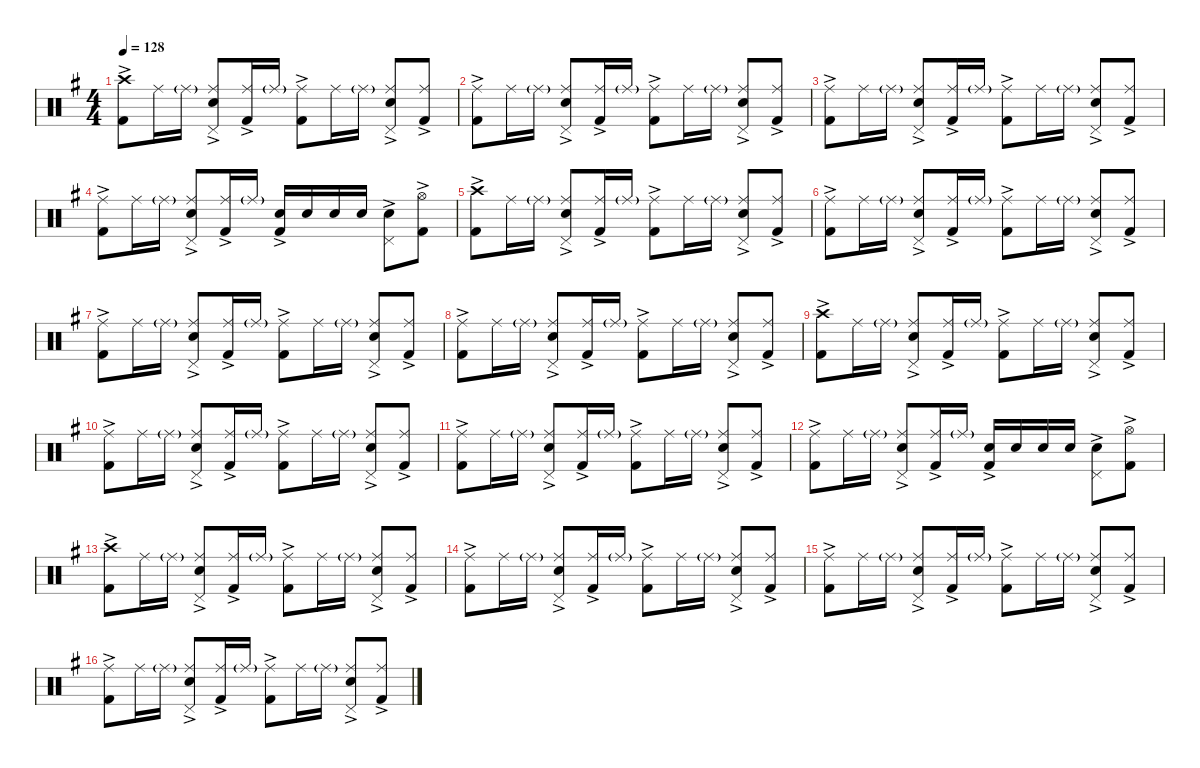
\defaultSystemsLayout 4
\hideDynamics
\bracketExtendMode nobrackets
\singleTrackTrackNamePolicy hidden
\multiTrackTrackNamePolicy hidden
\firstSystemTrackNameMode fullname
\firstSystemTrackNameOrientation horizontal
\otherSystemsTrackNameOrientation horizontal
\track ("Drums" "drm.") {instrument percussion}
\staff {score}
\articulation defaults
\ts (4 4)
\tempo 128
\clef neutral
\ks g
("Crash high (hit)"{acc forcenatural} "Kick (hit) 2"{ac acc forcenatural}).8{dy f beam Down} "Ride (middle)"{acc forcenatural}.16{beam Down} "Ride (middle)"{g acc forcenatural}.16{dy mf beam Down} ("Ride (middle)"{acc forcenatural} "Pedal Hi-Hat (hit)"{acc forcenatural} "Snare (hit) 2"{ac acc forcenatural}).8{dy f beam Up} ("Ride (middle)"{acc forcenatural} "Kick (hit) 2"{ac acc forcenatural}).16{beam Up} "Ride (middle)"{g acc forcenatural}.16{dy mf beam Up} ("Ride (middle)"{acc forcenatural} "Kick (hit) 2"{ac acc forcenatural}).8{dy f beam Down} "Ride (middle)"{acc forcenatural}.16{beam Down} "Ride (middle)"{g acc forcenatural}.16{dy mf beam Down} ("Ride (middle)"{acc forcenatural} "Pedal Hi-Hat (hit)"{acc forcenatural} "Snare (hit) 2"{ac acc forcenatural}).8{dy f beam Up} ("Ride (middle)"{acc forcenatural} "Kick (hit) 2"{ac acc forcenatural}).8{beam Up} |
("Ride (middle)"{acc forcenatural} "Kick (hit) 2"{ac acc forcenatural}).8{beam Down} "Ride (middle)"{acc forcenatural}.16{beam Down} "Ride (middle)"{g acc forcenatural}.16{dy mf beam Down} ("Ride (middle)"{acc forcenatural} "Pedal Hi-Hat (hit)"{acc forcenatural} "Snare (hit) 2"{ac acc forcenatural}).8{dy f beam Up} ("Ride (middle)"{acc forcenatural} "Kick (hit) 2"{ac acc forcenatural}).16{beam Up} "Ride (middle)"{g acc forcenatural}.16{dy mf beam Up} ("Ride (middle)"{acc forcenatural} "Kick (hit) 2"{ac acc forcenatural}).8{dy f beam Down} "Ride (middle)"{acc forcenatural}.16{beam Down} "Ride (middle)"{g acc forcenatural}.16{dy mf beam Down} ("Ride (middle)"{acc forcenatural} "Pedal Hi-Hat (hit)"{acc forcenatural} "Snare (hit) 2"{ac acc forcenatural}).8{dy f beam Up} ("Ride (middle)"{acc forcenatural} "Kick (hit) 2"{ac acc forcenatural}).8{beam Up} |
("Ride (middle)"{acc forcenatural} "Kick (hit) 2"{ac acc forcenatural}).8{beam Down} "Ride (middle)"{acc forcenatural}.16{beam Down} "Ride (middle)"{g acc forcenatural}.16{dy mf beam Down} ("Ride (middle)"{acc forcenatural} "Pedal Hi-Hat (hit)"{acc forcenatural} "Snare (hit) 2"{ac acc forcenatural}).8{dy f beam Up} ("Ride (middle)"{acc forcenatural} "Kick (hit) 2"{ac acc forcenatural}).16{beam Up} "Ride (middle)"{g acc forcenatural}.16{dy mf beam Up} ("Ride (middle)"{acc forcenatural} "Kick (hit) 2"{ac acc forcenatural}).8{dy f beam Down} "Ride (middle)"{acc forcenatural}.16{beam Down} "Ride (middle)"{g acc forcenatural}.16{dy mf beam Down} ("Ride (middle)"{acc forcenatural} "Pedal Hi-Hat (hit)"{acc forcenatural} "Snare (hit) 2"{ac acc forcenatural}).8{dy f beam Up} ("Ride (middle)"{acc forcenatural} "Kick (hit) 2"{ac acc forcenatural}).8{beam Up} |
("Ride (middle)"{acc forcenatural} "Kick (hit) 2"{ac acc forcenatural}).8{beam Down} "Ride (middle)"{acc forcenatural}.16{beam Down} "Ride (middle)"{g acc forcenatural}.16{dy mf beam Down} ("Ride (middle)"{acc forcenatural} "Pedal Hi-Hat (hit)"{acc forcenatural} "Snare (hit) 2"{ac acc forcenatural}).8{dy f beam Up} ("Ride (middle)"{acc forcenatural} "Kick (hit) 2"{ac acc forcenatural}).16{beam Up} "Ride (middle)"{g acc forcenatural}.16{dy mf beam Up} ("Snare (hit) 2"{acc forcenatural} "Kick (hit) 2"{ac acc forcenatural}).16{dy f beam Up} "Snare (hit) 2"{acc forcenatural}.16{beam Up} "Snare (hit) 2"{acc forcenatural}.16{beam Up} "Snare (hit) 2"{acc forcenatural}.16{beam Up} ("Pedal Hi-Hat (hit)"{acc forcenatural} "Snare (hit) 2"{ac acc forcenatural}).8{beam Down} ("Hi-Hat (open)"{acc forcenatural} "Kick (hit) 2"{ac acc forcenatural}).8{beam Down} |
("Crash high (hit)"{acc forcenatural} "Kick (hit) 2"{ac acc forcenatural}).8{beam Down} "Ride (middle)"{acc forcenatural}.16{beam Down} "Ride (middle)"{g acc forcenatural}.16{dy mf beam Down} ("Ride (middle)"{acc forcenatural} "Pedal Hi-Hat (hit)"{acc forcenatural} "Snare (hit) 2"{ac acc forcenatural}).8{dy f beam Up} ("Ride (middle)"{acc forcenatural} "Kick (hit) 2"{ac acc forcenatural}).16{beam Up} "Ride (middle)"{g acc forcenatural}.16{dy mf beam Up} ("Ride (middle)"{acc forcenatural} "Kick (hit) 2"{ac acc forcenatural}).8{dy f beam Down} "Ride (middle)"{acc forcenatural}.16{beam Down} "Ride (middle)"{g acc forcenatural}.16{dy mf beam Down} ("Ride (middle)"{acc forcenatural} "Pedal Hi-Hat (hit)"{acc forcenatural} "Snare (hit) 2"{ac acc forcenatural}).8{dy f beam Up} ("Ride (middle)"{acc forcenatural} "Kick (hit) 2"{ac acc forcenatural}).8{beam Up} |
("Ride (middle)"{acc forcenatural} "Kick (hit) 2"{ac acc forcenatural}).8{beam Down} "Ride (middle)"{acc forcenatural}.16{beam Down} "Ride (middle)"{g acc forcenatural}.16{dy mf beam Down} ("Ride (middle)"{acc forcenatural} "Pedal Hi-Hat (hit)"{acc forcenatural} "Snare (hit) 2"{ac acc forcenatural}).8{dy f beam Up} ("Ride (middle)"{acc forcenatural} "Kick (hit) 2"{ac acc forcenatural}).16{beam Up} "Ride (middle)"{g acc forcenatural}.16{dy mf beam Up} ("Ride (middle)"{acc forcenatural} "Kick (hit) 2"{ac acc forcenatural}).8{dy f beam Down} "Ride (middle)"{acc forcenatural}.16{beam Down} "Ride (middle)"{g acc forcenatural}.16{dy mf beam Down} ("Ride (middle)"{acc forcenatural} "Pedal Hi-Hat (hit)"{acc forcenatural} "Snare (hit) 2"{ac acc forcenatural}).8{dy f beam Up} ("Ride (middle)"{acc forcenatural} "Kick (hit) 2"{ac acc forcenatural}).8{beam Up} |
("Ride (middle)"{acc forcenatural} "Kick (hit) 2"{ac acc forcenatural}).8{beam Down} "Ride (middle)"{acc forcenatural}.16{beam Down} "Ride (middle)"{g acc forcenatural}.16{dy mf beam Down} ("Ride (middle)"{acc forcenatural} "Pedal Hi-Hat (hit)"{acc forcenatural} "Snare (hit) 2"{ac acc forcenatural}).8{dy f beam Up} ("Ride (middle)"{acc forcenatural} "Kick (hit) 2"{ac acc forcenatural}).16{beam Up} "Ride (middle)"{g acc forcenatural}.16{dy mf beam Up} ("Ride (middle)"{acc forcenatural} "Kick (hit) 2"{ac acc forcenatural}).8{dy f beam Down} "Ride (middle)"{acc forcenatural}.16{beam Down} "Ride (middle)"{g acc forcenatural}.16{dy mf beam Down} ("Ride (middle)"{acc forcenatural} "Pedal Hi-Hat (hit)"{acc forcenatural} "Snare (hit) 2"{ac acc forcenatural}).8{dy f beam Up} ("Ride (middle)"{acc forcenatural} "Kick (hit) 2"{ac acc forcenatural}).8{beam Up} |
("Ride (middle)"{acc forcenatural} "Kick (hit) 2"{ac acc forcenatural}).8{beam Down} "Ride (middle)"{acc forcenatural}.16{beam Down} "Ride (middle)"{g acc forcenatural}.16{dy mf beam Down} ("Ride (middle)"{acc forcenatural} "Pedal Hi-Hat (hit)"{acc forcenatural} "Snare (hit) 2"{ac acc forcenatural}).8{dy f beam Up} ("Ride (middle)"{acc forcenatural} "Kick (hit) 2"{ac acc forcenatural}).16{beam Up} "Ride (middle)"{g acc forcenatural}.16{dy mf beam Up} ("Ride (middle)"{acc forcenatural} "Kick (hit) 2"{ac acc forcenatural}).8{dy f beam Down} "Ride (middle)"{acc forcenatural}.16{beam Down} "Ride (middle)"{g acc forcenatural}.16{dy mf beam Down} ("Ride (middle)"{acc forcenatural} "Pedal Hi-Hat (hit)"{acc forcenatural} "Snare (hit) 2"{ac acc forcenatural}).8{dy f beam Up} ("Ride (middle)"{acc forcenatural} "Kick (hit) 2"{ac acc forcenatural}).8{beam Up} |
("Crash high (hit)"{acc forcenatural} "Kick (hit) 2"{ac acc forcenatural}).8{beam Down} "Ride (middle)"{acc forcenatural}.16{beam Down} "Ride (middle)"{g acc forcenatural}.16{dy mf beam Down} ("Ride (middle)"{acc forcenatural} "Pedal Hi-Hat (hit)"{acc forcenatural} "Snare (hit) 2"{ac acc forcenatural}).8{dy f beam Up} ("Ride (middle)"{acc forcenatural} "Kick (hit) 2"{ac acc forcenatural}).16{beam Up} "Ride (middle)"{g acc forcenatural}.16{dy mf beam Up} ("Ride (middle)"{acc forcenatural} "Kick (hit) 2"{ac acc forcenatural}).8{dy f beam Down} "Ride (middle)"{acc forcenatural}.16{beam Down} "Ride (middle)"{g acc forcenatural}.16{dy mf beam Down} ("Ride (middle)"{acc forcenatural} "Pedal Hi-Hat (hit)"{acc forcenatural} "Snare (hit) 2"{ac acc forcenatural}).8{dy f beam Up} ("Ride (middle)"{acc forcenatural} "Kick (hit) 2"{ac acc forcenatural}).8{beam Up} |
("Ride (middle)"{acc forcenatural} "Kick (hit) 2"{ac acc forcenatural}).8{beam Down} "Ride (middle)"{acc forcenatural}.16{beam Down} "Ride (middle)"{g acc forcenatural}.16{dy mf beam Down} ("Ride (middle)"{acc forcenatural} "Pedal Hi-Hat (hit)"{acc forcenatural} "Snare (hit) 2"{ac acc forcenatural}).8{dy f beam Up} ("Ride (middle)"{acc forcenatural} "Kick (hit) 2"{ac acc forcenatural}).16{beam Up} "Ride (middle)"{g acc forcenatural}.16{dy mf beam Up} ("Ride (middle)"{acc forcenatural} "Kick (hit) 2"{ac acc forcenatural}).8{dy f beam Down} "Ride (middle)"{acc forcenatural}.16{beam Down} "Ride (middle)"{g acc forcenatural}.16{dy mf beam Down} ("Ride (middle)"{acc forcenatural} "Pedal Hi-Hat (hit)"{acc forcenatural} "Snare (hit) 2"{ac acc forcenatural}).8{dy f beam Up} ("Ride (middle)"{acc forcenatural} "Kick (hit) 2"{ac acc forcenatural}).8{beam Up} |
("Ride (middle)"{acc forcenatural} "Kick (hit) 2"{ac acc forcenatural}).8{beam Down} "Ride (middle)"{acc forcenatural}.16{beam Down} "Ride (middle)"{g acc forcenatural}.16{dy mf beam Down} ("Ride (middle)"{acc forcenatural} "Pedal Hi-Hat (hit)"{acc forcenatural} "Snare (hit) 2"{ac acc forcenatural}).8{dy f beam Up} ("Ride (middle)"{acc forcenatural} "Kick (hit) 2"{ac acc forcenatural}).16{beam Up} "Ride (middle)"{g acc forcenatural}.16{dy mf beam Up} ("Ride (middle)"{acc forcenatural} "Kick (hit) 2"{ac acc forcenatural}).8{dy f beam Down} "Ride (middle)"{acc forcenatural}.16{beam Down} "Ride (middle)"{g acc forcenatural}.16{dy mf beam Down} ("Ride (middle)"{acc forcenatural} "Pedal Hi-Hat (hit)"{acc forcenatural} "Snare (hit) 2"{ac acc forcenatural}).8{dy f beam Up} ("Ride (middle)"{acc forcenatural} "Kick (hit) 2"{ac acc forcenatural}).8{beam Up} |
("Ride (middle)"{acc forcenatural} "Kick (hit) 2"{ac acc forcenatural}).8{beam Down} "Ride (middle)"{acc forcenatural}.16{beam Down} "Ride (middle)"{g acc forcenatural}.16{dy mf beam Down} ("Ride (middle)"{acc forcenatural} "Pedal Hi-Hat (hit)"{acc forcenatural} "Snare (hit) 2"{ac acc forcenatural}).8{dy f beam Up} ("Ride (middle)"{acc forcenatural} "Kick (hit) 2"{ac acc forcenatural}).16{beam Up} "Ride (middle)"{g acc forcenatural}.16{dy mf beam Up} ("Snare (hit) 2"{acc forcenatural} "Kick (hit) 2"{ac acc forcenatural}).16{dy f beam Up} "Snare (hit) 2"{acc forcenatural}.16{beam Up} "Snare (hit) 2"{acc forcenatural}.16{beam Up} "Snare (hit) 2"{acc forcenatural}.16{beam Up} ("Pedal Hi-Hat (hit)"{acc forcenatural} "Snare (hit) 2"{ac acc forcenatural}).8{beam Down} ("Hi-Hat (open)"{acc forcenatural} "Kick (hit) 2"{ac acc forcenatural}).8{beam Down} |
("Crash high (hit)"{acc forcenatural} "Kick (hit) 2"{ac acc forcenatural}).8{beam Down} "Ride (middle)"{acc forcenatural}.16{beam Down} "Ride (middle)"{g acc forcenatural}.16{dy mf beam Down} ("Ride (middle)"{acc forcenatural} "Pedal Hi-Hat (hit)"{acc forcenatural} "Snare (hit) 2"{ac acc forcenatural}).8{dy f beam Up} ("Ride (middle)"{acc forcenatural} "Kick (hit) 2"{ac acc forcenatural}).16{beam Up} "Ride (middle)"{g acc forcenatural}.16{dy mf beam Up} ("Ride (middle)"{acc forcenatural} "Kick (hit) 2"{ac acc forcenatural}).8{dy f beam Down} "Ride (middle)"{acc forcenatural}.16{beam Down} "Ride (middle)"{g acc forcenatural}.16{dy mf beam Down} ("Ride (middle)"{acc forcenatural} "Pedal Hi-Hat (hit)"{acc forcenatural} "Snare (hit) 2"{ac acc forcenatural}).8{dy f beam Up} ("Ride (middle)"{acc forcenatural} "Kick (hit) 2"{ac acc forcenatural}).8{beam Up} |
("Ride (middle)"{acc forcenatural} "Kick (hit) 2"{ac acc forcenatural}).8{beam Down} "Ride (middle)"{acc forcenatural}.16{beam Down} "Ride (middle)"{g acc forcenatural}.16{dy mf beam Down} ("Ride (middle)"{acc forcenatural} "Pedal Hi-Hat (hit)"{acc forcenatural} "Snare (hit) 2"{ac acc forcenatural}).8{dy f beam Up} ("Ride (middle)"{acc forcenatural} "Kick (hit) 2"{ac acc forcenatural}).16{beam Up} "Ride (middle)"{g acc forcenatural}.16{dy mf beam Up} ("Ride (middle)"{acc forcenatural} "Kick (hit) 2"{ac acc forcenatural}).8{dy f beam Down} "Ride (middle)"{acc forcenatural}.16{beam Down} "Ride (middle)"{g acc forcenatural}.16{dy mf beam Down} ("Ride (middle)"{acc forcenatural} "Pedal Hi-Hat (hit)"{acc forcenatural} "Snare (hit) 2"{ac acc forcenatural}).8{dy f beam Up} ("Ride (middle)"{acc forcenatural} "Kick (hit) 2"{ac acc forcenatural}).8{beam Up} |
("Ride (middle)"{acc forcenatural} "Kick (hit) 2"{ac acc forcenatural}).8{beam Down} "Ride (middle)"{acc forcenatural}.16{beam Down} "Ride (middle)"{g acc forcenatural}.16{dy mf beam Down} ("Ride (middle)"{acc forcenatural} "Pedal Hi-Hat (hit)"{acc forcenatural} "Snare (hit) 2"{ac acc forcenatural}).8{dy f beam Up} ("Ride (middle)"{acc forcenatural} "Kick (hit) 2"{ac acc forcenatural}).16{beam Up} "Ride (middle)"{g acc forcenatural}.16{dy mf beam Up} ("Ride (middle)"{acc forcenatural} "Kick (hit) 2"{ac acc forcenatural}).8{dy f beam Down} "Ride (middle)"{acc forcenatural}.16{beam Down} "Ride (middle)"{g acc forcenatural}.16{dy mf beam Down} ("Ride (middle)"{acc forcenatural} "Pedal Hi-Hat (hit)"{acc forcenatural} "Snare (hit) 2"{ac acc forcenatural}).8{dy f beam Up} ("Ride (middle)"{acc forcenatural} "Kick (hit) 2"{ac acc forcenatural}).8{beam Up} |
("Ride (middle)"{acc forcenatural} "Kick (hit) 2"{ac acc forcenatural}).8{beam Down} "Ride (middle)"{acc forcenatural}.16{beam Down} "Ride (middle)"{g acc forcenatural}.16{dy mf beam Down} ("Ride (middle)"{acc forcenatural} "Pedal Hi-Hat (hit)"{acc forcenatural} "Snare (hit) 2"{ac acc forcenatural}).8{dy f beam Up} ("Ride (middle)"{acc forcenatural} "Kick (hit) 2"{ac acc forcenatural}).16{beam Up} "Ride (middle)"{g acc forcenatural}.16{dy mf beam Up} ("Ride (middle)"{acc forcenatural} "Kick (hit) 2"{ac acc forcenatural}).8{dy f beam Down} "Ride (middle)"{acc forcenatural}.16{beam Down} "Ride (middle)"{g acc forcenatural}.16{dy mf beam Down} ("Ride (middle)"{acc forcenatural} "Pedal Hi-Hat (hit)"{acc forcenatural} "Snare (hit) 2"{ac acc forcenatural}).8{dy f beam Up} ("Ride (middle)"{acc forcenatural} "Kick (hit) 2"{ac acc forcenatural}).8{beam Up}
